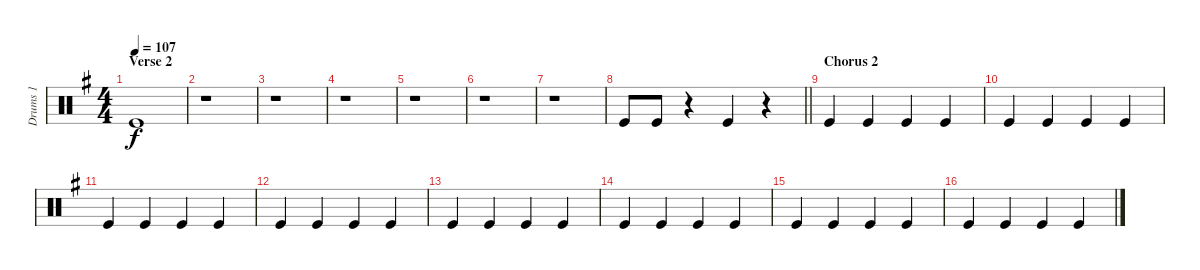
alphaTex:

\track ("Drums 1" "Drums 1") {instrument percussion}
\staff {score}
\articulation defaults
\ts (4 4)
\section ("" "Verse 2")
\tempo 107
\clef neutral
\ks g "Kick (hit)".1{dy f}
|
r.1 |
r.1 |
r.1 |
r.1 |
r.1 |
r.1 |
\barLineRight lightlight "Kick (hit)".8 "Kick (hit)".8
r.4 "Kick (hit)".4 r.4 |
\section ("" "Chorus 2")
"Kick (hit)".4 "Kick (hit)".4 "Kick (hit)".4 "Kick (hit)".4 |
"Kick (hit)".4 "Kick (hit)".4 "Kick (hit)".4 "Kick (hit)".4 |
"Kick (hit)".4 "Kick (hit)".4 "Kick (hit)".4 "Kick (hit)".4 |
"Kick (hit)".4 "Kick (hit)".4 "Kick (hit)".4 "Kick (hit)".4 |
"Kick (hit)".4 "Kick (hit)".4 "Kick (hit)".4 "Kick (hit)".4 |
"Kick (hit)".4 "Kick (hit)".4 "Kick (hit)".4 "Kick (hit)".4 |
"Kick (hit)".4 "Kick (hit)".4 "Kick (hit)".4 "Kick (hit)".4 |
"Kick (hit)".4 "Kick (hit)".4 "Kick (hit)".4 "Kick (hit)".4
